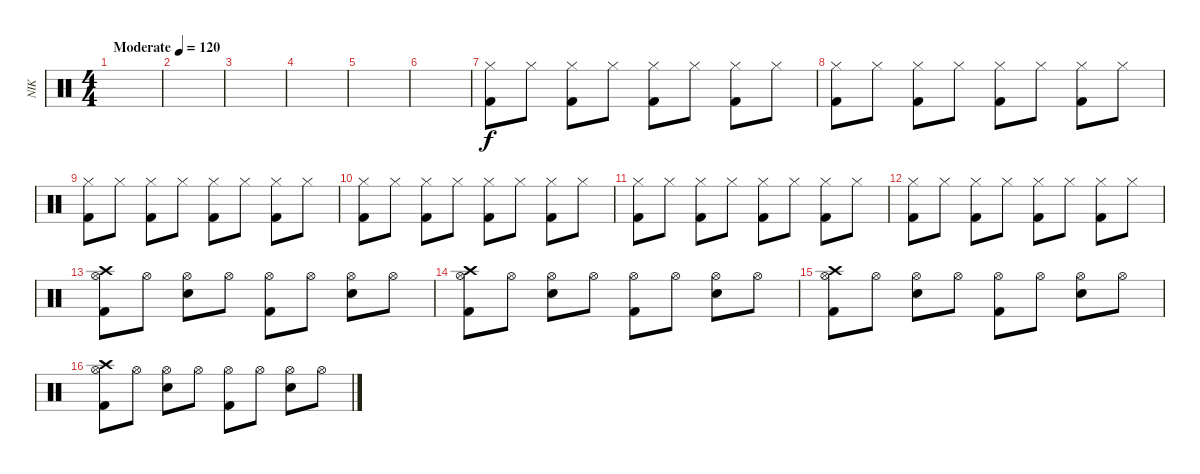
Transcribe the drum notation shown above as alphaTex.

\track ("NIK" "NIK") {instrument percussion}
\staff {score}
\articulation defaults
\ts (4 4)
\tempo (120 "Moderate")
\tempo 110
\tempo (120 "Moderate")
\clef neutral
\ks c
|
|
|
|
|
|
("Hi-Hat (closed)" "Kick (hit) 2").8 "Hi-Hat (closed)".8 ("Hi-Hat (closed)" "Kick (hit) 2").8 "Hi-Hat (closed)".8 ("Hi-Hat (closed)" "Kick (hit) 2").8 "Hi-Hat (closed)".8 ("Hi-Hat (closed)" "Kick (hit) 2").8 "Hi-Hat (closed)".8 |
("Hi-Hat (closed)" "Kick (hit) 2").8 "Hi-Hat (closed)".8 ("Hi-Hat (closed)" "Kick (hit) 2").8 "Hi-Hat (closed)".8 ("Hi-Hat (closed)" "Kick (hit) 2").8 "Hi-Hat (closed)".8 ("Hi-Hat (closed)" "Kick (hit) 2").8 "Hi-Hat (closed)".8 |
("Hi-Hat (closed)" "Kick (hit) 2").8 "Hi-Hat (closed)".8 ("Hi-Hat (closed)" "Kick (hit) 2").8 "Hi-Hat (closed)".8 ("Hi-Hat (closed)" "Kick (hit) 2").8 "Hi-Hat (closed)".8 ("Hi-Hat (closed)" "Kick (hit) 2").8 "Hi-Hat (closed)".8 |
("Hi-Hat (closed)" "Kick (hit) 2").8 "Hi-Hat (closed)".8 ("Hi-Hat (closed)" "Kick (hit) 2").8 "Hi-Hat (closed)".8 ("Hi-Hat (closed)" "Kick (hit) 2").8 "Hi-Hat (closed)".8 ("Hi-Hat (closed)" "Kick (hit) 2").8 "Hi-Hat (closed)".8 |
("Hi-Hat (closed)" "Kick (hit) 2").8 "Hi-Hat (closed)".8 ("Hi-Hat (closed)" "Kick (hit) 2").8 "Hi-Hat (closed)".8 ("Hi-Hat (closed)" "Kick (hit) 2").8 "Hi-Hat (closed)".8 ("Hi-Hat (closed)" "Kick (hit) 2").8 "Hi-Hat (closed)".8 |
("Hi-Hat (closed)" "Kick (hit) 2").8 "Hi-Hat (closed)".8 ("Hi-Hat (closed)" "Kick (hit) 2").8 "Hi-Hat (closed)".8 ("Hi-Hat (closed)" "Kick (hit) 2").8 "Hi-Hat (closed)".8 ("Hi-Hat (closed)" "Kick (hit) 2").8 "Hi-Hat (closed)".8 |
("Kick (hit) 2" "Crash high (hit)" "Hi-Hat (open)").8 "Hi-Hat (open)".8 ("Snare (hit) 2" "Hi-Hat (open)").8 "Hi-Hat (open)".8 ("Kick (hit) 2" "Hi-Hat (open)").8 "Hi-Hat (open)".8 ("Snare (hit) 2" "Hi-Hat (open)").8 "Hi-Hat (open)".8 |
("Kick (hit) 2" "Crash high (hit)" "Hi-Hat (open)").8 "Hi-Hat (open)".8 ("Snare (hit) 2" "Hi-Hat (open)").8 "Hi-Hat (open)".8 ("Kick (hit) 2" "Hi-Hat (open)").8 "Hi-Hat (open)".8 ("Snare (hit) 2" "Hi-Hat (open)").8 "Hi-Hat (open)".8 |
("Kick (hit) 2" "Crash high (hit)" "Hi-Hat (open)").8 "Hi-Hat (open)".8 ("Snare (hit) 2" "Hi-Hat (open)").8 "Hi-Hat (open)".8 ("Kick (hit) 2" "Hi-Hat (open)").8 "Hi-Hat (open)".8 ("Snare (hit) 2" "Hi-Hat (open)").8 "Hi-Hat (open)".8 |
("Kick (hit) 2" "Crash high (hit)" "Hi-Hat (open)").8 "Hi-Hat (open)".8 ("Snare (hit) 2" "Hi-Hat (open)").8 "Hi-Hat (open)".8 ("Kick (hit) 2" "Hi-Hat (open)").8 "Hi-Hat (open)".8 ("Snare (hit) 2" "Hi-Hat (open)").8 "Hi-Hat (open)".8
